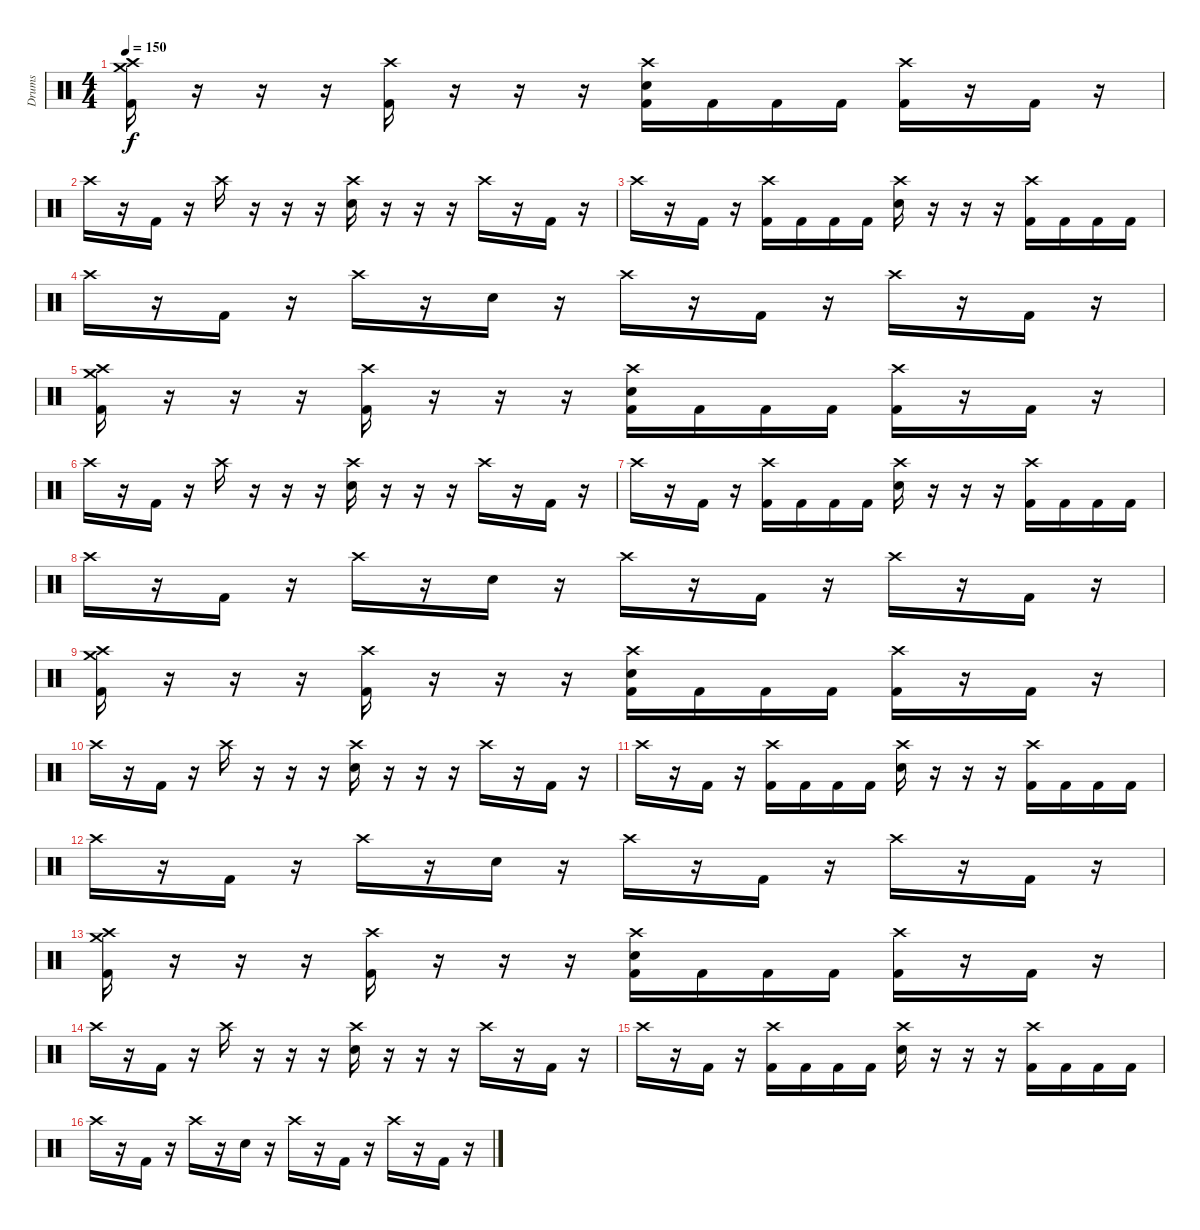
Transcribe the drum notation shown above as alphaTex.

\track ("Drums" "Drums") {instrument percussion}
\staff {score}
\articulation defaults
\ts (4 4)
\tempo 150
\clef neutral
\ks c
("Crash high (hit)" "Crash medium (hit)" "Kick (hit) 2").16{dy f} r.16 r.16 r.16 ("Crash high (hit)" "Kick (hit) 2").16 r.16 r.16 r.16 ("Crash high (hit)" "Electric Snare (hit)" "Kick (hit) 2").16 "Kick (hit) 2".16 "Kick (hit) 2".16 "Kick (hit) 2".16 ("Crash high (hit)" "Kick (hit) 2").16 r.16 "Kick (hit) 2".16 r.16 |
"Crash high (hit)".16 r.16 "Kick (hit) 2".16 r.16 "Crash high (hit)".16 r.16 r.16 r.16 ("Crash high (hit)" "Electric Snare (hit)").16 r.16 r.16 r.16 "Crash high (hit)".16 r.16 "Kick (hit) 2".16 r.16 |
"Crash high (hit)".16 r.16 "Kick (hit) 2".16 r.16 ("Crash high (hit)" "Kick (hit) 2").16 "Kick (hit) 2".16 "Kick (hit) 2".16 "Kick (hit) 2".16 ("Crash high (hit)" "Electric Snare (hit)").16 r.16 r.16 r.16 ("Crash high (hit)" "Kick (hit) 2").16 "Kick (hit) 2".16 "Kick (hit) 2".16 "Kick (hit) 2".16 |
"Crash high (hit)".16 r.16 "Kick (hit) 2".16 r.16 "Crash high (hit)".16 r.16 "Electric Snare (hit)".16 r.16 "Crash high (hit)".16 r.16 "Kick (hit) 2".16 r.16 "Crash high (hit)".16 r.16 "Kick (hit) 2".16 r.16 |
("Crash high (hit)" "Crash medium (hit)" "Kick (hit) 2").16 r.16 r.16 r.16 ("Crash high (hit)" "Kick (hit) 2").16 r.16 r.16 r.16 ("Crash high (hit)" "Electric Snare (hit)" "Kick (hit) 2").16 "Kick (hit) 2".16 "Kick (hit) 2".16 "Kick (hit) 2".16 ("Crash high (hit)" "Kick (hit) 2").16 r.16 "Kick (hit) 2".16 r.16 |
"Crash high (hit)".16 r.16 "Kick (hit) 2".16 r.16 "Crash high (hit)".16 r.16 r.16 r.16 ("Crash high (hit)" "Electric Snare (hit)").16 r.16 r.16 r.16 "Crash high (hit)".16 r.16 "Kick (hit) 2".16 r.16 |
"Crash high (hit)".16 r.16 "Kick (hit) 2".16 r.16 ("Crash high (hit)" "Kick (hit) 2").16 "Kick (hit) 2".16 "Kick (hit) 2".16 "Kick (hit) 2".16 ("Crash high (hit)" "Electric Snare (hit)").16 r.16 r.16 r.16 ("Crash high (hit)" "Kick (hit) 2").16 "Kick (hit) 2".16 "Kick (hit) 2".16 "Kick (hit) 2".16 |
"Crash high (hit)".16 r.16 "Kick (hit) 2".16 r.16 "Crash high (hit)".16 r.16 "Electric Snare (hit)".16 r.16 "Crash high (hit)".16 r.16 "Kick (hit) 2".16 r.16 "Crash high (hit)".16 r.16 "Kick (hit) 2".16 r.16 |
("Crash high (hit)" "Crash medium (hit)" "Kick (hit) 2").16 r.16 r.16 r.16 ("Crash high (hit)" "Kick (hit) 2").16 r.16 r.16 r.16 ("Crash high (hit)" "Electric Snare (hit)" "Kick (hit) 2").16 "Kick (hit) 2".16 "Kick (hit) 2".16 "Kick (hit) 2".16 ("Crash high (hit)" "Kick (hit) 2").16 r.16 "Kick (hit) 2".16 r.16 |
"Crash high (hit)".16 r.16 "Kick (hit) 2".16 r.16 "Crash high (hit)".16 r.16 r.16 r.16 ("Crash high (hit)" "Electric Snare (hit)").16 r.16 r.16 r.16 "Crash high (hit)".16 r.16 "Kick (hit) 2".16 r.16 |
"Crash high (hit)".16 r.16 "Kick (hit) 2".16 r.16 ("Crash high (hit)" "Kick (hit) 2").16 "Kick (hit) 2".16 "Kick (hit) 2".16 "Kick (hit) 2".16 ("Crash high (hit)" "Electric Snare (hit)").16 r.16 r.16 r.16 ("Crash high (hit)" "Kick (hit) 2").16 "Kick (hit) 2".16 "Kick (hit) 2".16 "Kick (hit) 2".16 |
"Crash high (hit)".16 r.16 "Kick (hit) 2".16 r.16 "Crash high (hit)".16 r.16 "Electric Snare (hit)".16 r.16 "Crash high (hit)".16 r.16 "Kick (hit) 2".16 r.16 "Crash high (hit)".16 r.16 "Kick (hit) 2".16 r.16 |
("Crash high (hit)" "Crash medium (hit)" "Kick (hit) 2").16 r.16 r.16 r.16 ("Crash high (hit)" "Kick (hit) 2").16 r.16 r.16 r.16 ("Crash high (hit)" "Electric Snare (hit)" "Kick (hit) 2").16 "Kick (hit) 2".16 "Kick (hit) 2".16 "Kick (hit) 2".16 ("Crash high (hit)" "Kick (hit) 2").16 r.16 "Kick (hit) 2".16 r.16 |
"Crash high (hit)".16 r.16 "Kick (hit) 2".16 r.16 "Crash high (hit)".16 r.16 r.16 r.16 ("Crash high (hit)" "Electric Snare (hit)").16 r.16 r.16 r.16 "Crash high (hit)".16 r.16 "Kick (hit) 2".16 r.16 |
"Crash high (hit)".16 r.16 "Kick (hit) 2".16 r.16 ("Crash high (hit)" "Kick (hit) 2").16 "Kick (hit) 2".16 "Kick (hit) 2".16 "Kick (hit) 2".16 ("Crash high (hit)" "Electric Snare (hit)").16 r.16 r.16 r.16 ("Crash high (hit)" "Kick (hit) 2").16 "Kick (hit) 2".16 "Kick (hit) 2".16 "Kick (hit) 2".16 |
"Crash high (hit)".16 r.16 "Kick (hit) 2".16 r.16 "Crash high (hit)".16 r.16 "Electric Snare (hit)".16 r.16 "Crash high (hit)".16 r.16 "Kick (hit) 2".16 r.16 "Crash high (hit)".16 r.16 "Kick (hit) 2".16 r.16
